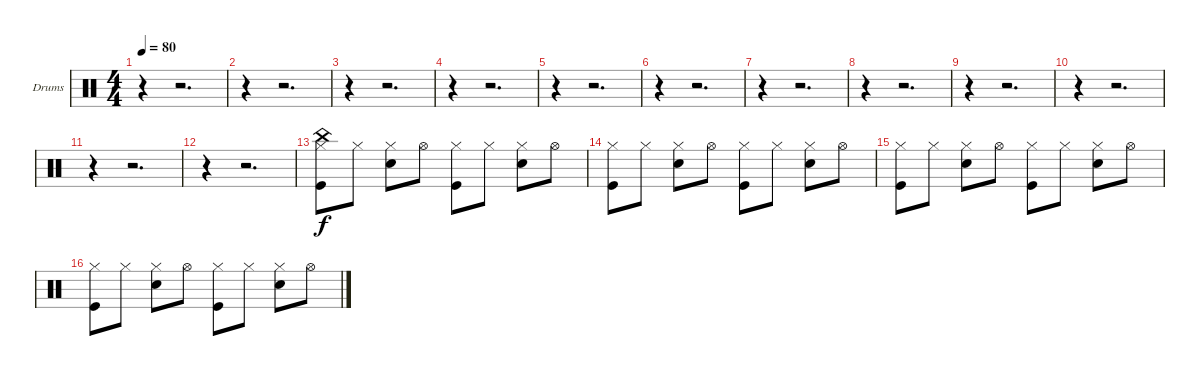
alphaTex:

\bracketExtendMode groupsimilarinstruments
\firstSystemTrackNameOrientation horizontal
\otherSystemsTrackNameOrientation horizontal
\track ("Drumkit" "Drums") {instrument percussion}
\staff {score}
\articulation defaults
\ts (4 4)
\tempo 80
\clef neutral
\ks c
r.4{dy f} r.2{d} |
r.4 r.2{d} |
r.4 r.2{d} |
r.4 r.2{d} |
r.4 r.2{d} |
r.4 r.2{d} |
r.4 r.2{d} |
r.4 r.2{d} |
r.4 r.2{d} |
r.4 r.2{d} |
r.4 r.2{d} |
r.4 r.2{d} |
("China (hit)" "Hi-Hat (closed)" "Kick (hit)").8 "Hi-Hat (closed)".8 ("Hi-Hat (closed)" "Snare (hit) 2").8 "Hi-Hat (open)".8 ("Hi-Hat (closed)" "Kick (hit)").8 "Hi-Hat (closed)".8 ("Hi-Hat (closed)" "Snare (hit) 2").8 "Hi-Hat (open)".8 |
("Hi-Hat (closed)" "Kick (hit)").8 "Hi-Hat (closed)".8 ("Hi-Hat (closed)" "Snare (hit) 2").8 "Hi-Hat (open)".8 ("Hi-Hat (closed)" "Kick (hit)").8 "Hi-Hat (closed)".8 ("Hi-Hat (closed)" "Snare (hit) 2").8 "Hi-Hat (open)".8 |
("Hi-Hat (closed)" "Kick (hit)").8 "Hi-Hat (closed)".8 ("Hi-Hat (closed)" "Snare (hit) 2").8 "Hi-Hat (open)".8 ("Hi-Hat (closed)" "Kick (hit)").8 "Hi-Hat (closed)".8 ("Hi-Hat (closed)" "Snare (hit) 2").8 "Hi-Hat (open)".8 |
("Hi-Hat (closed)" "Kick (hit)").8 "Hi-Hat (closed)".8 ("Hi-Hat (closed)" "Snare (hit) 2").8 "Hi-Hat (open)".8 ("Hi-Hat (closed)" "Kick (hit)").8 "Hi-Hat (closed)".8 ("Hi-Hat (closed)" "Snare (hit) 2").8 "Hi-Hat (open)".8
